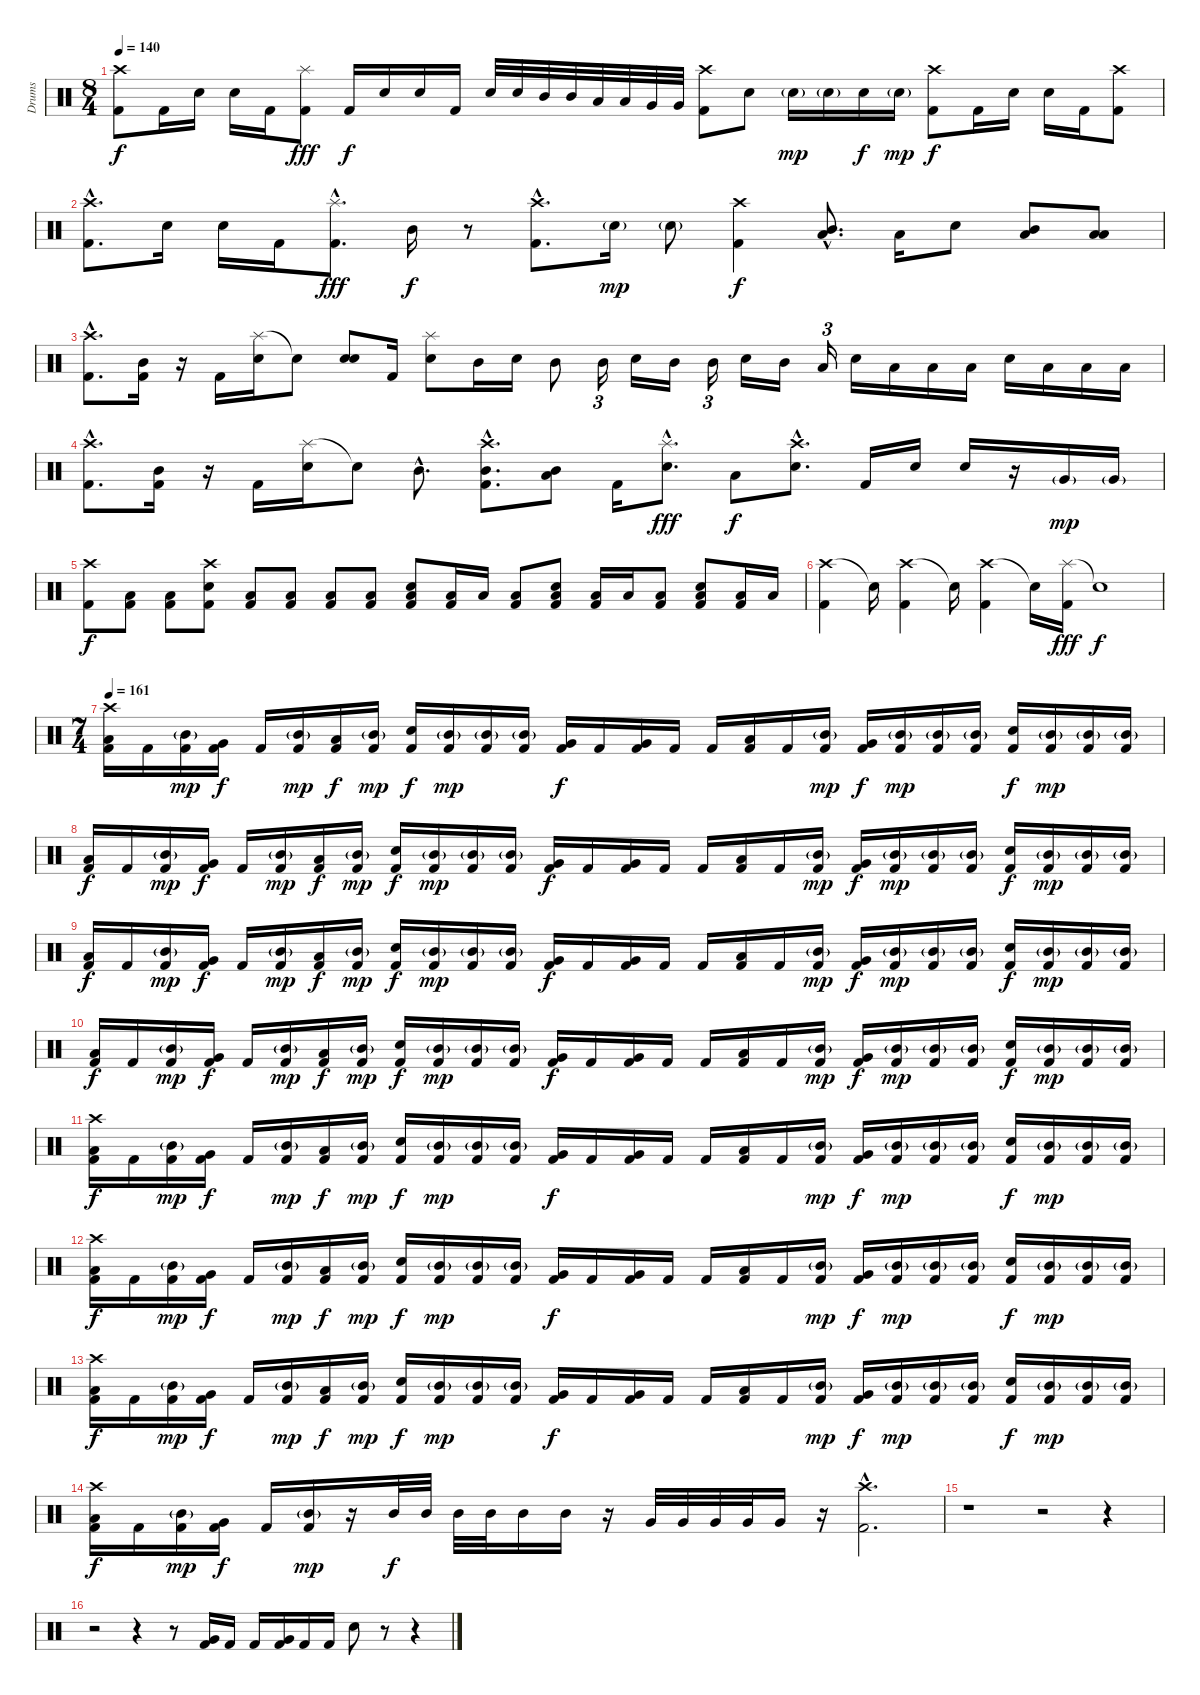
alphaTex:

\track ("Drums" "Drums") {instrument percussion}
\staff {score}
\articulation defaults
\ts (8 4)
\tempo 140
\clef neutral
\ks c
("Crash high (hit)" "Kick (hit) 2").8{dy f} "Kick (hit) 2".16 "Snare (hit) 2".16 "Snare (hit) 2".16 "Kick (hit) 2".16 ("Splash (hit)" "Kick (hit) 2").8{dy fff} "Kick (hit) 2".16{dy f} "Snare (hit) 2".16 "Snare (hit) 2".16 "Kick (hit) 2".16 "Snare (hit) 2".32 "Snare (hit) 2".32 "Mid Tom (hit)".32 "Mid Tom (hit)".32 "Low Tom (hit)".32 "Low Tom (hit)".32 "Very Low Tom (hit)".32 "Very Low Tom (hit)".32 ("Crash high (hit)" "Kick (hit) 2").8 "Snare (hit) 2".8 "Snare (hit) 2"{g}.16{dy mp} "Snare (hit) 2"{g}.16 "Snare (hit) 2".16{dy f} "Snare (hit) 2"{g}.16{dy mp} ("Crash high (hit)" "Kick (hit) 2").8{dy f} "Kick (hit) 2".16 "Snare (hit) 2".16 "Snare (hit) 2".16 "Kick (hit) 2".16 ("Crash high (hit)" "Kick (hit) 2").8 |
("Crash high (hit)"{hac} "Kick (hit) 2"{hac}).8{d} "Snare (hit) 2".16 "Snare (hit) 2".16 "Kick (hit) 2".16 ("Splash (hit)"{hac} "Kick (hit) 2"{hac}).8{d dy fff} "Mid Tom (hit)".16{dy f} r.8 ("Crash high (hit)"{hac} "Kick (hit) 2"{hac}).8{d} "Snare (hit) 2"{g}.16{dy mp} "Snare (hit) 2"{g}.8 ("Crash high (hit)" "Kick (hit) 2").4{dy f} ("Mid Tom (hit)"{hac} "Low Floor Tom (hit)"{hac}).8{d} "Low Tom (hit)".16 "Snare (hit) 2".8 ("Mid Tom (hit)" "Low Floor Tom (hit)").8 ("Low Tom (hit)" "Low Floor Tom (hit)").8 |
("Crash high (hit)"{hac} "Kick (hit) 2"{hac}).8{d} ("Mid Tom (hit)" "Kick (hit) 2").16 r.16 "Kick (hit) 2".16 ("Splash (hit)" "Snare (hit) 2").16 "Snare (hit)"{t}.8 ("Snare (hit) 2" "Snare (hit) 2").8 "Kick (hit) 2".16 ("Splash (hit)" "Snare (hit) 2").8 "Mid Tom (hit)".16 "Snare (hit) 2".16 "Mid Tom (hit)".8 "Mid Tom (hit)".16{tu (3 2)} "Snare (hit) 2".16 "Mid Tom (hit)".16 "Mid Tom (hit)".16{tu (3 2)} "Snare (hit) 2".16 "Mid Tom (hit)".16 "Low Tom (hit)".16{tu (3 2)} "Snare (hit) 2".16 "Low Tom (hit)".16 "Low Tom (hit)".16 "Low Tom (hit)".16 "Snare (hit) 2".16 "Low Tom (hit)".16 "Low Tom (hit)".16 "Low Tom (hit)".16 |
("Crash high (hit)"{hac} "Kick (hit) 2"{hac}).8{d} ("Mid Tom (hit)" "Kick (hit) 2").16 r.16 "Kick (hit) 2".16 ("Splash (hit)" "Snare (hit) 2").16 "Snare (hit)"{t}.8 "Mid Tom (hit)"{hac}.8{d} ("Crash high (hit)"{hac} "Mid Tom (hit)"{hac} "Kick (hit) 2"{hac}).8{d} ("Mid Tom (hit)" "Low Tom (hit)").8 "Kick (hit) 2".16 ("Splash (hit)"{hac} "Snare (hit) 2"{hac}).8{d dy fff} "Low Tom (hit)".8{dy f} ("Crash high (hit)"{hac} "Snare (hit) 2"{hac}).8{d} "Kick (hit) 2".16 "Snare (hit) 2".16 "Snare (hit) 2".16 r.16 "Very Low Tom (hit)"{g}.16{dy mp} "Very Low Tom (hit)"{g}.16 |
("Crash high (hit)" "Kick (hit) 2").8{dy f} ("Low Floor Tom (hit)" "Kick (hit) 2").8 ("Low Floor Tom (hit)" "Kick (hit) 2").8 ("Crash high (hit)" "Snare (hit) 2" "Kick (hit) 2").8 ("Low Floor Tom (hit)" "Kick (hit) 2").8 ("Low Floor Tom (hit)" "Kick (hit) 2").8 ("Low Floor Tom (hit)" "Kick (hit) 2").8 ("Low Floor Tom (hit)" "Kick (hit) 2").8 ("Low Floor Tom (hit)" "Snare (hit) 2" "Kick (hit) 2").8 ("Low Floor Tom (hit)" "Kick (hit) 2").16 "Low Floor Tom (hit)".16 ("Low Floor Tom (hit)" "Kick (hit) 2").8 ("Low Floor Tom (hit)" "Snare (hit) 2" "Kick (hit) 2").8 ("Low Floor Tom (hit)" "Kick (hit) 2").16 "Low Floor Tom (hit)".16 ("Low Floor Tom (hit)" "Kick (hit) 2").8 ("Low Floor Tom (hit)" "Snare (hit) 2" "Kick (hit) 2").8 ("Low Floor Tom (hit)" "Kick (hit) 2").16 "Low Floor Tom (hit)".16 |
("Crash high (hit)" "Kick (hit) 2").4 "Snare (hit)"{t}.16 ("Crash high (hit)" "Kick (hit) 2").4 "Snare (hit)"{t}.16 ("Crash high (hit)" "Kick (hit) 2").4 "Snare (hit)"{t}.16 ("Splash (hit)" "Kick (hit) 2").16{dy fff} "Snare (hit)"{t}.1{dy f} |
\ts (7 4)
\tempo 161
("Crash high (hit)" "Low Floor Tom (hit)" "Kick (hit) 2").16 "Kick (hit) 2".16 ("Mid Tom (hit)"{g} "Kick (hit) 2").16{dy mp} ("Very Low Tom (hit)" "Kick (hit) 2").16{dy f} "Kick (hit) 2".16 ("Mid Tom (hit)"{g} "Kick (hit) 2").16{dy mp} ("Low Floor Tom (hit)" "Kick (hit) 2").16{dy f} ("Mid Tom (hit)"{g} "Kick (hit) 2").16{dy mp} ("Snare (hit) 2" "Kick (hit) 2").16{dy f} ("Mid Tom (hit)"{g} "Kick (hit) 2").16{dy mp} ("Mid Tom (hit)"{g} "Kick (hit) 2").16 ("Mid Tom (hit)"{g} "Kick (hit) 2").16 ("Very Low Tom (hit)" "Kick (hit) 2").16{dy f} "Kick (hit) 2".16 ("Very Low Tom (hit)" "Kick (hit) 2").16 "Kick (hit) 2".16 "Kick (hit) 2".16 ("Low Floor Tom (hit)" "Kick (hit) 2").16 "Kick (hit) 2".16 ("Mid Tom (hit)"{g} "Kick (hit) 2").16{dy mp} ("Very Low Tom (hit)" "Kick (hit) 2").16{dy f} ("Mid Tom (hit)"{g} "Kick (hit) 2").16{dy mp} ("Mid Tom (hit)"{g} "Kick (hit) 2").16 ("Mid Tom (hit)"{g} "Kick (hit) 2").16 ("Snare (hit) 2" "Kick (hit) 2").16{dy f} ("Mid Tom (hit)"{g} "Kick (hit) 2").16{dy mp} ("Mid Tom (hit)"{g} "Kick (hit) 2").16 ("Mid Tom (hit)"{g} "Kick (hit) 2").16 |
("Low Floor Tom (hit)" "Kick (hit) 2").16{dy f} "Kick (hit) 2".16 ("Mid Tom (hit)"{g} "Kick (hit) 2").16{dy mp} ("Very Low Tom (hit)" "Kick (hit) 2").16{dy f} "Kick (hit) 2".16 ("Mid Tom (hit)"{g} "Kick (hit) 2").16{dy mp} ("Low Floor Tom (hit)" "Kick (hit) 2").16{dy f} ("Mid Tom (hit)"{g} "Kick (hit) 2").16{dy mp} ("Snare (hit) 2" "Kick (hit) 2").16{dy f} ("Mid Tom (hit)"{g} "Kick (hit) 2").16{dy mp} ("Mid Tom (hit)"{g} "Kick (hit) 2").16 ("Mid Tom (hit)"{g} "Kick (hit) 2").16 ("Very Low Tom (hit)" "Kick (hit) 2").16{dy f} "Kick (hit) 2".16 ("Very Low Tom (hit)" "Kick (hit) 2").16 "Kick (hit) 2".16 "Kick (hit) 2".16 ("Low Floor Tom (hit)" "Kick (hit) 2").16 "Kick (hit) 2".16 ("Mid Tom (hit)"{g} "Kick (hit) 2").16{dy mp} ("Very Low Tom (hit)" "Kick (hit) 2").16{dy f} ("Mid Tom (hit)"{g} "Kick (hit) 2").16{dy mp} ("Mid Tom (hit)"{g} "Kick (hit) 2").16 ("Mid Tom (hit)"{g} "Kick (hit) 2").16 ("Snare (hit) 2" "Kick (hit) 2").16{dy f} ("Mid Tom (hit)"{g} "Kick (hit) 2").16{dy mp} ("Mid Tom (hit)"{g} "Kick (hit) 2").16 ("Mid Tom (hit)"{g} "Kick (hit) 2").16 |
("Low Floor Tom (hit)" "Kick (hit) 2").16{dy f} "Kick (hit) 2".16 ("Mid Tom (hit)"{g} "Kick (hit) 2").16{dy mp} ("Very Low Tom (hit)" "Kick (hit) 2").16{dy f} "Kick (hit) 2".16 ("Mid Tom (hit)"{g} "Kick (hit) 2").16{dy mp} ("Low Floor Tom (hit)" "Kick (hit) 2").16{dy f} ("Mid Tom (hit)"{g} "Kick (hit) 2").16{dy mp} ("Snare (hit) 2" "Kick (hit) 2").16{dy f} ("Mid Tom (hit)"{g} "Kick (hit) 2").16{dy mp} ("Mid Tom (hit)"{g} "Kick (hit) 2").16 ("Mid Tom (hit)"{g} "Kick (hit) 2").16 ("Very Low Tom (hit)" "Kick (hit) 2").16{dy f} "Kick (hit) 2".16 ("Very Low Tom (hit)" "Kick (hit) 2").16 "Kick (hit) 2".16 "Kick (hit) 2".16 ("Low Floor Tom (hit)" "Kick (hit) 2").16 "Kick (hit) 2".16 ("Mid Tom (hit)"{g} "Kick (hit) 2").16{dy mp} ("Very Low Tom (hit)" "Kick (hit) 2").16{dy f} ("Mid Tom (hit)"{g} "Kick (hit) 2").16{dy mp} ("Mid Tom (hit)"{g} "Kick (hit) 2").16 ("Mid Tom (hit)"{g} "Kick (hit) 2").16 ("Snare (hit) 2" "Kick (hit) 2").16{dy f} ("Mid Tom (hit)"{g} "Kick (hit) 2").16{dy mp} ("Mid Tom (hit)"{g} "Kick (hit) 2").16 ("Mid Tom (hit)"{g} "Kick (hit) 2").16 |
("Low Floor Tom (hit)" "Kick (hit) 2").16{dy f} "Kick (hit) 2".16 ("Mid Tom (hit)"{g} "Kick (hit) 2").16{dy mp} ("Very Low Tom (hit)" "Kick (hit) 2").16{dy f} "Kick (hit) 2".16 ("Mid Tom (hit)"{g} "Kick (hit) 2").16{dy mp} ("Low Floor Tom (hit)" "Kick (hit) 2").16{dy f} ("Mid Tom (hit)"{g} "Kick (hit) 2").16{dy mp} ("Snare (hit) 2" "Kick (hit) 2").16{dy f} ("Mid Tom (hit)"{g} "Kick (hit) 2").16{dy mp} ("Mid Tom (hit)"{g} "Kick (hit) 2").16 ("Mid Tom (hit)"{g} "Kick (hit) 2").16 ("Very Low Tom (hit)" "Kick (hit) 2").16{dy f} "Kick (hit) 2".16 ("Very Low Tom (hit)" "Kick (hit) 2").16 "Kick (hit) 2".16 "Kick (hit) 2".16 ("Low Floor Tom (hit)" "Kick (hit) 2").16 "Kick (hit) 2".16 ("Mid Tom (hit)"{g} "Kick (hit) 2").16{dy mp} ("Very Low Tom (hit)" "Kick (hit) 2").16{dy f} ("Mid Tom (hit)"{g} "Kick (hit) 2").16{dy mp} ("Mid Tom (hit)"{g} "Kick (hit) 2").16 ("Mid Tom (hit)"{g} "Kick (hit) 2").16 ("Snare (hit) 2" "Kick (hit) 2").16{dy f} ("Mid Tom (hit)"{g} "Kick (hit) 2").16{dy mp} ("Mid Tom (hit)"{g} "Kick (hit) 2").16 ("Mid Tom (hit)"{g} "Kick (hit) 2").16 |
("Crash high (hit)" "Low Floor Tom (hit)" "Kick (hit) 2").16{dy f} "Kick (hit) 2".16 ("Mid Tom (hit)"{g} "Kick (hit) 2").16{dy mp} ("Very Low Tom (hit)" "Kick (hit) 2").16{dy f} "Kick (hit) 2".16 ("Mid Tom (hit)"{g} "Kick (hit) 2").16{dy mp} ("Low Floor Tom (hit)" "Kick (hit) 2").16{dy f} ("Mid Tom (hit)"{g} "Kick (hit) 2").16{dy mp} ("Snare (hit) 2" "Kick (hit) 2").16{dy f} ("Mid Tom (hit)"{g} "Kick (hit) 2").16{dy mp} ("Mid Tom (hit)"{g} "Kick (hit) 2").16 ("Mid Tom (hit)"{g} "Kick (hit) 2").16 ("Very Low Tom (hit)" "Kick (hit) 2").16{dy f} "Kick (hit) 2".16 ("Very Low Tom (hit)" "Kick (hit) 2").16 "Kick (hit) 2".16 "Kick (hit) 2".16 ("Low Floor Tom (hit)" "Kick (hit) 2").16 "Kick (hit) 2".16 ("Mid Tom (hit)"{g} "Kick (hit) 2").16{dy mp} ("Very Low Tom (hit)" "Kick (hit) 2").16{dy f} ("Mid Tom (hit)"{g} "Kick (hit) 2").16{dy mp} ("Mid Tom (hit)"{g} "Kick (hit) 2").16 ("Mid Tom (hit)"{g} "Kick (hit) 2").16 ("Snare (hit) 2" "Kick (hit) 2").16{dy f} ("Mid Tom (hit)"{g} "Kick (hit) 2").16{dy mp} ("Mid Tom (hit)"{g} "Kick (hit) 2").16 ("Mid Tom (hit)"{g} "Kick (hit) 2").16 |
("Crash high (hit)" "Low Floor Tom (hit)" "Kick (hit) 2").16{dy f} "Kick (hit) 2".16 ("Mid Tom (hit)"{g} "Kick (hit) 2").16{dy mp} ("Very Low Tom (hit)" "Kick (hit) 2").16{dy f} "Kick (hit) 2".16 ("Mid Tom (hit)"{g} "Kick (hit) 2").16{dy mp} ("Low Floor Tom (hit)" "Kick (hit) 2").16{dy f} ("Mid Tom (hit)"{g} "Kick (hit) 2").16{dy mp} ("Snare (hit) 2" "Kick (hit) 2").16{dy f} ("Mid Tom (hit)"{g} "Kick (hit) 2").16{dy mp} ("Mid Tom (hit)"{g} "Kick (hit) 2").16 ("Mid Tom (hit)"{g} "Kick (hit) 2").16 ("Very Low Tom (hit)" "Kick (hit) 2").16{dy f} "Kick (hit) 2".16 ("Very Low Tom (hit)" "Kick (hit) 2").16 "Kick (hit) 2".16 "Kick (hit) 2".16 ("Low Floor Tom (hit)" "Kick (hit) 2").16 "Kick (hit) 2".16 ("Mid Tom (hit)"{g} "Kick (hit) 2").16{dy mp} ("Very Low Tom (hit)" "Kick (hit) 2").16{dy f} ("Mid Tom (hit)"{g} "Kick (hit) 2").16{dy mp} ("Mid Tom (hit)"{g} "Kick (hit) 2").16 ("Mid Tom (hit)"{g} "Kick (hit) 2").16 ("Snare (hit) 2" "Kick (hit) 2").16{dy f} ("Mid Tom (hit)"{g} "Kick (hit) 2").16{dy mp} ("Mid Tom (hit)"{g} "Kick (hit) 2").16 ("Mid Tom (hit)"{g} "Kick (hit) 2").16 |
("Crash high (hit)" "Low Floor Tom (hit)" "Kick (hit) 2").16{dy f} "Kick (hit) 2".16 ("Mid Tom (hit)"{g} "Kick (hit) 2").16{dy mp} ("Very Low Tom (hit)" "Kick (hit) 2").16{dy f} "Kick (hit) 2".16 ("Mid Tom (hit)"{g} "Kick (hit) 2").16{dy mp} ("Low Floor Tom (hit)" "Kick (hit) 2").16{dy f} ("Mid Tom (hit)"{g} "Kick (hit) 2").16{dy mp} ("Snare (hit) 2" "Kick (hit) 2").16{dy f} ("Mid Tom (hit)"{g} "Kick (hit) 2").16{dy mp} ("Mid Tom (hit)"{g} "Kick (hit) 2").16 ("Mid Tom (hit)"{g} "Kick (hit) 2").16 ("Very Low Tom (hit)" "Kick (hit) 2").16{dy f} "Kick (hit) 2".16 ("Very Low Tom (hit)" "Kick (hit) 2").16 "Kick (hit) 2".16 "Kick (hit) 2".16 ("Low Floor Tom (hit)" "Kick (hit) 2").16 "Kick (hit) 2".16 ("Mid Tom (hit)"{g} "Kick (hit) 2").16{dy mp} ("Very Low Tom (hit)" "Kick (hit) 2").16{dy f} ("Mid Tom (hit)"{g} "Kick (hit) 2").16{dy mp} ("Mid Tom (hit)"{g} "Kick (hit) 2").16 ("Mid Tom (hit)"{g} "Kick (hit) 2").16 ("Snare (hit) 2" "Kick (hit) 2").16{dy f} ("Mid Tom (hit)"{g} "Kick (hit) 2").16{dy mp} ("Mid Tom (hit)"{g} "Kick (hit) 2").16 ("Mid Tom (hit)"{g} "Kick (hit) 2").16 |
("Crash high (hit)" "Low Floor Tom (hit)" "Kick (hit) 2").16{dy f} "Kick (hit) 2".16 ("Mid Tom (hit)"{g} "Kick (hit) 2").16{dy mp} ("Very Low Tom (hit)" "Kick (hit) 2").16{dy f} "Kick (hit) 2".16 ("Mid Tom (hit)"{g} "Kick (hit) 2").16{dy mp} r.16 "Mid Tom (hit)".32{dy f} "Mid Tom (hit)".32 "Mid Tom (hit)".32 "Mid Tom (hit)".32 "Mid Tom (hit)".16 "Mid Tom (hit)".16 r.16 "Very Low Tom (hit)".32 "Very Low Tom (hit)".32 "Very Low Tom (hit)".32 "Very Low Tom (hit)".32 "Very Low Tom (hit)".16 r.16 ("Crash high (hit)"{hac} "Kick (hit) 2"{hac}).2{d} |
r.1 r.2 r.4 |
r.2 r.4 r.8 ("Very Low Tom (hit)" "Kick (hit) 2").16 "Kick (hit) 2".16 "Kick (hit) 2".16 ("Very Low Tom (hit)" "Kick (hit) 2").16 "Kick (hit) 2".16 "Kick (hit) 2".16 "Snare (hit) 2".8 r.8 r.4
